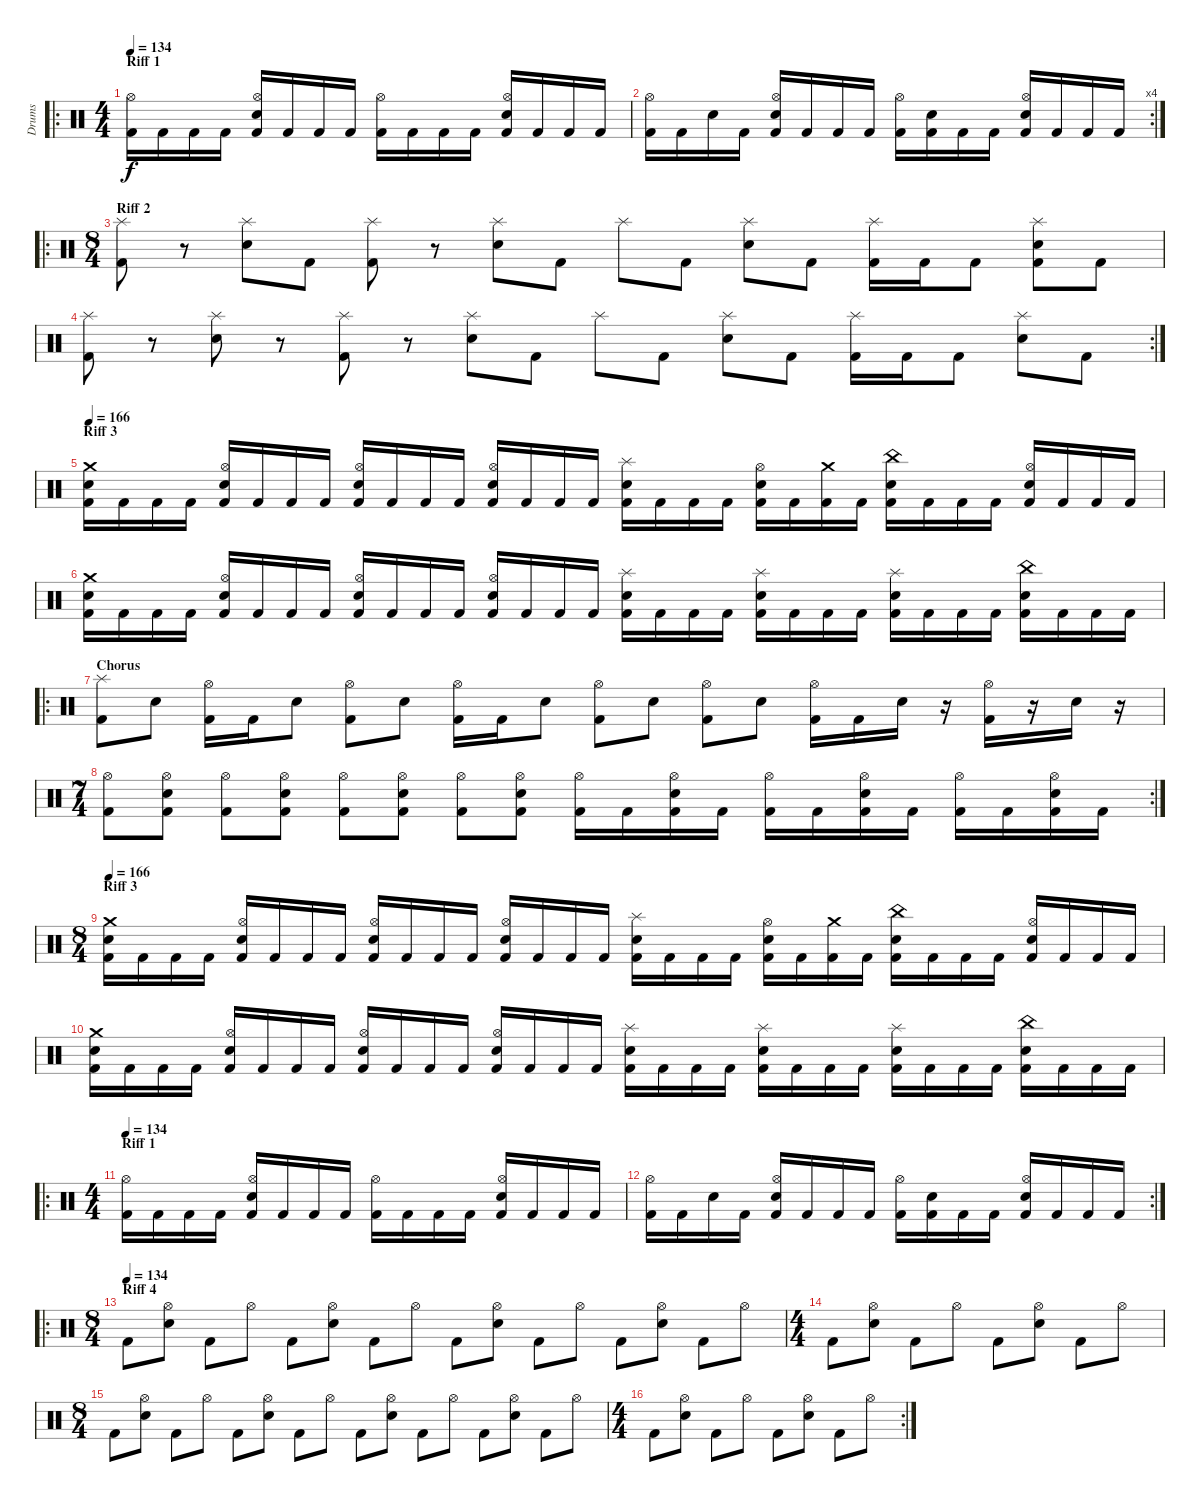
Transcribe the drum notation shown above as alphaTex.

\track ("Drums" "Drums") {instrument percussion}
\staff {score}
\articulation defaults
\ro
\ts (4 4)
\section ("" "Riff 1")
\tempo 134
\clef neutral
\ks c
("Kick (hit) 2" "Hi-Hat (open)").16{dy f} "Kick (hit) 2".16 "Kick (hit) 2".16 "Kick (hit) 2".16 ("Kick (hit) 2" "Snare (hit) 2" "Hi-Hat (open)").16 "Kick (hit) 2".16 "Kick (hit) 2".16 "Kick (hit) 2".16 ("Kick (hit) 2" "Hi-Hat (open)").16 "Kick (hit) 2".16 "Kick (hit) 2".16 "Kick (hit) 2".16 ("Kick (hit) 2" "Snare (hit) 2" "Hi-Hat (open)").16 "Kick (hit) 2".16 "Kick (hit) 2".16 "Kick (hit) 2".16 |
\rc 4
("Kick (hit) 2" "Hi-Hat (open)").16 "Kick (hit) 2".16 "Snare (hit)".16 "Kick (hit) 2".16 ("Kick (hit) 2" "Snare (hit) 2" "Hi-Hat (open)").16 "Kick (hit) 2".16 "Kick (hit) 2".16 "Kick (hit) 2".16 ("Kick (hit) 2" "Hi-Hat (open)").16 ("Kick (hit) 2" "Snare (hit) 2").16 "Kick (hit) 2".16 "Kick (hit) 2".16 ("Kick (hit) 2" "Snare (hit) 2" "Hi-Hat (open)").16 "Kick (hit) 2".16 "Kick (hit) 2".16 "Kick (hit) 2".16 |
\ro
\ts (8 4)
\section ("" "Riff 2")
("Kick (hit) 2" "Splash (hit)").8 r.8 ("Snare (hit) 2" "Splash (hit)").8 "Kick (hit) 2".8 ("Kick (hit) 2" "Splash (hit)").8 r.8 ("Snare (hit) 2" "Splash (hit)").8 "Kick (hit) 2".8 "Splash (hit)".8 "Kick (hit) 2".8 ("Snare (hit) 2" "Splash (hit)").8 "Kick (hit) 2".8 ("Kick (hit) 2" "Splash (hit)").16 "Kick (hit) 2".16 "Kick (hit) 2".8 ("Kick (hit) 2" "Snare (hit) 2" "Splash (hit)").8 "Kick (hit) 2".8 |
\rc 2
("Kick (hit) 2" "Splash (hit)").8 r.8 ("Snare (hit) 2" "Splash (hit)").8 r.8 ("Kick (hit) 2" "Splash (hit)").8 r.8 ("Snare (hit) 2" "Splash (hit)").8 "Kick (hit) 2".8 "Splash (hit)".8 "Kick (hit) 2".8 ("Snare (hit) 2" "Splash (hit)").8 "Kick (hit) 2".8 ("Kick (hit) 2" "Splash (hit)").16 "Kick (hit) 2".16 "Kick (hit) 2".8 ("Snare (hit) 2" "Splash (hit)").8 "Kick (hit) 2".8 |
\section ("" "Riff 3")
\tempo 166
("Kick (hit) 2" "Snare (hit) 2" "Crash medium (hit)").16 "Kick (hit) 2".16 "Kick (hit) 2".16 "Kick (hit) 2".16 ("Kick (hit) 2" "Snare (hit) 2" "Hi-Hat (open)").16 "Kick (hit) 2".16 "Kick (hit) 2".16 "Kick (hit) 2".16 ("Kick (hit) 2" "Snare (hit) 2" "Hi-Hat (open)").16 "Kick (hit) 2".16 "Kick (hit) 2".16 "Kick (hit) 2".16 ("Kick (hit) 2" "Snare (hit) 2" "Hi-Hat (open)").16 "Kick (hit) 2".16 "Kick (hit) 2".16 "Kick (hit) 2".16 ("Kick (hit) 2" "Snare (hit) 2" "Splash (hit)").16 "Kick (hit) 2".16 "Kick (hit) 2".16 "Kick (hit) 2".16 ("Kick (hit) 2" "Snare (hit) 2" "Hi-Hat (open)").16 "Kick (hit) 2".16 ("Kick (hit) 2" "Crash medium (hit)").16 "Kick (hit) 2".16 ("Kick (hit) 2" "Snare (hit) 2" "China (hit)").16 "Kick (hit) 2".16 "Kick (hit) 2".16 "Kick (hit) 2".16 ("Kick (hit) 2" "Snare (hit) 2" "Hi-Hat (open)").16 "Kick (hit) 2".16 "Kick (hit) 2".16 "Kick (hit) 2".16 |
("Kick (hit) 2" "Snare (hit) 2" "Crash medium (hit)").16 "Kick (hit) 2".16 "Kick (hit) 2".16 "Kick (hit) 2".16 ("Kick (hit) 2" "Snare (hit) 2" "Hi-Hat (open)").16 "Kick (hit) 2".16 "Kick (hit) 2".16 "Kick (hit) 2".16 ("Kick (hit) 2" "Snare (hit) 2" "Hi-Hat (open)").16 "Kick (hit) 2".16 "Kick (hit) 2".16 "Kick (hit) 2".16 ("Kick (hit) 2" "Snare (hit) 2" "Hi-Hat (open)").16 "Kick (hit) 2".16 "Kick (hit) 2".16 "Kick (hit) 2".16 ("Kick (hit) 2" "Snare (hit) 2" "Splash (hit)").16 "Kick (hit) 2".16 "Kick (hit) 2".16 "Kick (hit) 2".16 ("Kick (hit) 2" "Snare (hit) 2" "Splash (hit)").16 "Kick (hit) 2".16 "Kick (hit) 2".16 "Kick (hit) 2".16 ("Kick (hit) 2" "Snare (hit) 2" "Splash (hit)").16 "Kick (hit) 2".16 "Kick (hit) 2".16 "Kick (hit) 2".16 ("Kick (hit) 2" "Snare (hit) 2" "China (hit)").16 "Kick (hit) 2".16 "Kick (hit) 2".16 "Kick (hit) 2".16 |
\ro
\section ("" "Chorus")
("Kick (hit) 2" "Splash (hit)").8 "Snare (hit) 2".8 ("Kick (hit) 2" "Hi-Hat (open)").16 "Kick (hit) 2".16 "Snare (hit) 2".8 ("Kick (hit) 2" "Hi-Hat (open)").8 "Snare (hit) 2".8 ("Kick (hit) 2" "Hi-Hat (open)").16 "Kick (hit) 2".16 "Snare (hit) 2".8 ("Kick (hit) 2" "Hi-Hat (open)").8 "Snare (hit) 2".8 ("Kick (hit) 2" "Hi-Hat (open)").8 "Snare (hit) 2".8 ("Kick (hit) 2" "Hi-Hat (open)").16 "Kick (hit) 2".16 "Snare (hit) 2".16 r.16 ("Kick (hit) 2" "Hi-Hat (open)").16 r.16 "Snare (hit) 2".16 r.16 |
\rc 2
\ts (7 4)
("Kick (hit) 2" "Hi-Hat (open)").8 ("Kick (hit) 2" "Snare (hit) 2" "Hi-Hat (open)").8 ("Kick (hit) 2" "Hi-Hat (open)").8 ("Kick (hit) 2" "Snare (hit) 2" "Hi-Hat (open)").8 ("Kick (hit) 2" "Hi-Hat (open)").8 ("Kick (hit) 2" "Snare (hit) 2" "Hi-Hat (open)").8 ("Kick (hit) 2" "Hi-Hat (open)").8 ("Kick (hit) 2" "Snare (hit) 2" "Hi-Hat (open)").8 ("Kick (hit) 2" "Hi-Hat (open)").16 "Kick (hit) 2".16 ("Kick (hit) 2" "Snare (hit) 2" "Hi-Hat (open)").16 "Kick (hit) 2".16 ("Kick (hit) 2" "Hi-Hat (open)").16 "Kick (hit) 2".16 ("Kick (hit) 2" "Snare (hit) 2" "Hi-Hat (open)").16 "Kick (hit) 2".16 ("Kick (hit) 2" "Hi-Hat (open)").16 "Kick (hit) 2".16 ("Kick (hit) 2" "Snare (hit) 2" "Hi-Hat (open)").16 "Kick (hit) 2".16 |
\ts (8 4)
\section ("" "Riff 3")
\tempo 166
("Kick (hit) 2" "Snare (hit) 2" "Crash medium (hit)").16 "Kick (hit) 2".16 "Kick (hit) 2".16 "Kick (hit) 2".16 ("Kick (hit) 2" "Snare (hit) 2" "Hi-Hat (open)").16 "Kick (hit) 2".16 "Kick (hit) 2".16 "Kick (hit) 2".16 ("Kick (hit) 2" "Snare (hit) 2" "Hi-Hat (open)").16 "Kick (hit) 2".16 "Kick (hit) 2".16 "Kick (hit) 2".16 ("Kick (hit) 2" "Snare (hit) 2" "Hi-Hat (open)").16 "Kick (hit) 2".16 "Kick (hit) 2".16 "Kick (hit) 2".16 ("Kick (hit) 2" "Snare (hit) 2" "Splash (hit)").16 "Kick (hit) 2".16 "Kick (hit) 2".16 "Kick (hit) 2".16 ("Kick (hit) 2" "Snare (hit) 2" "Hi-Hat (open)").16 "Kick (hit) 2".16 ("Kick (hit) 2" "Crash medium (hit)").16 "Kick (hit) 2".16 ("Kick (hit) 2" "Snare (hit) 2" "China (hit)").16 "Kick (hit) 2".16 "Kick (hit) 2".16 "Kick (hit) 2".16 ("Kick (hit) 2" "Snare (hit) 2" "Hi-Hat (open)").16 "Kick (hit) 2".16 "Kick (hit) 2".16 "Kick (hit) 2".16 |
("Kick (hit) 2" "Snare (hit) 2" "Crash medium (hit)").16 "Kick (hit) 2".16 "Kick (hit) 2".16 "Kick (hit) 2".16 ("Kick (hit) 2" "Snare (hit) 2" "Hi-Hat (open)").16 "Kick (hit) 2".16 "Kick (hit) 2".16 "Kick (hit) 2".16 ("Kick (hit) 2" "Snare (hit) 2" "Hi-Hat (open)").16 "Kick (hit) 2".16 "Kick (hit) 2".16 "Kick (hit) 2".16 ("Kick (hit) 2" "Snare (hit) 2" "Hi-Hat (open)").16 "Kick (hit) 2".16 "Kick (hit) 2".16 "Kick (hit) 2".16 ("Kick (hit) 2" "Snare (hit) 2" "Splash (hit)").16 "Kick (hit) 2".16 "Kick (hit) 2".16 "Kick (hit) 2".16 ("Kick (hit) 2" "Snare (hit) 2" "Splash (hit)").16 "Kick (hit) 2".16 "Kick (hit) 2".16 "Kick (hit) 2".16 ("Kick (hit) 2" "Snare (hit) 2" "Splash (hit)").16 "Kick (hit) 2".16 "Kick (hit) 2".16 "Kick (hit) 2".16 ("Kick (hit) 2" "Snare (hit) 2" "China (hit)").16 "Kick (hit) 2".16 "Kick (hit) 2".16 "Kick (hit) 2".16 |
\ro
\ts (4 4)
\section ("" "Riff 1")
\tempo 134
("Kick (hit) 2" "Hi-Hat (open)").16 "Kick (hit) 2".16 "Kick (hit) 2".16 "Kick (hit) 2".16 ("Kick (hit) 2" "Snare (hit) 2" "Hi-Hat (open)").16 "Kick (hit) 2".16 "Kick (hit) 2".16 "Kick (hit) 2".16 ("Kick (hit) 2" "Hi-Hat (open)").16 "Kick (hit) 2".16 "Kick (hit) 2".16 "Kick (hit) 2".16 ("Kick (hit) 2" "Snare (hit) 2" "Hi-Hat (open)").16 "Kick (hit) 2".16 "Kick (hit) 2".16 "Kick (hit) 2".16 |
\rc 2
("Kick (hit) 2" "Hi-Hat (open)").16 "Kick (hit) 2".16 "Snare (hit)".16 "Kick (hit) 2".16 ("Kick (hit) 2" "Snare (hit) 2" "Hi-Hat (open)").16 "Kick (hit) 2".16 "Kick (hit) 2".16 "Kick (hit) 2".16 ("Kick (hit) 2" "Hi-Hat (open)").16 ("Kick (hit) 2" "Snare (hit) 2").16 "Kick (hit) 2".16 "Kick (hit) 2".16 ("Kick (hit) 2" "Snare (hit) 2" "Hi-Hat (open)").16 "Kick (hit) 2".16 "Kick (hit) 2".16 "Kick (hit) 2".16 |
\ro
\ts (8 4)
\section ("" "Riff 4")
\tempo (134)
"Kick (hit) 2".8 ("Hi-Hat (open)" "Snare (hit) 2").8 "Kick (hit) 2".8 "Hi-Hat (open)".8 "Kick (hit) 2".8 ("Hi-Hat (open)" "Snare (hit) 2").8 "Kick (hit) 2".8 "Hi-Hat (open)".8 "Kick (hit) 2".8 ("Hi-Hat (open)" "Snare (hit) 2").8 "Kick (hit) 2".8 "Hi-Hat (open)".8 "Kick (hit) 2".8 ("Hi-Hat (open)" "Snare (hit) 2").8 "Kick (hit) 2".8 "Hi-Hat (open)".8 |
\ts (4 4)
"Kick (hit) 2".8 ("Hi-Hat (open)" "Snare (hit) 2").8 "Kick (hit) 2".8 "Hi-Hat (open)".8 "Kick (hit) 2".8 ("Hi-Hat (open)" "Snare (hit) 2").8 "Kick (hit) 2".8 "Hi-Hat (open)".8 |
\ts (8 4)
"Kick (hit) 2".8 ("Hi-Hat (open)" "Snare (hit) 2").8 "Kick (hit) 2".8 "Hi-Hat (open)".8 "Kick (hit) 2".8 ("Hi-Hat (open)" "Snare (hit) 2").8 "Kick (hit) 2".8 "Hi-Hat (open)".8 "Kick (hit) 2".8 ("Hi-Hat (open)" "Snare (hit) 2").8 "Kick (hit) 2".8 "Hi-Hat (open)".8 "Kick (hit) 2".8 ("Hi-Hat (open)" "Snare (hit) 2").8 "Kick (hit) 2".8 "Hi-Hat (open)".8 |
\rc 2
\ts (4 4)
"Kick (hit) 2".8 ("Hi-Hat (open)" "Snare (hit) 2").8 "Kick (hit) 2".8 "Hi-Hat (open)".8 "Kick (hit) 2".8 ("Hi-Hat (open)" "Snare (hit) 2").8 "Kick (hit) 2".8 "Hi-Hat (open)".8
